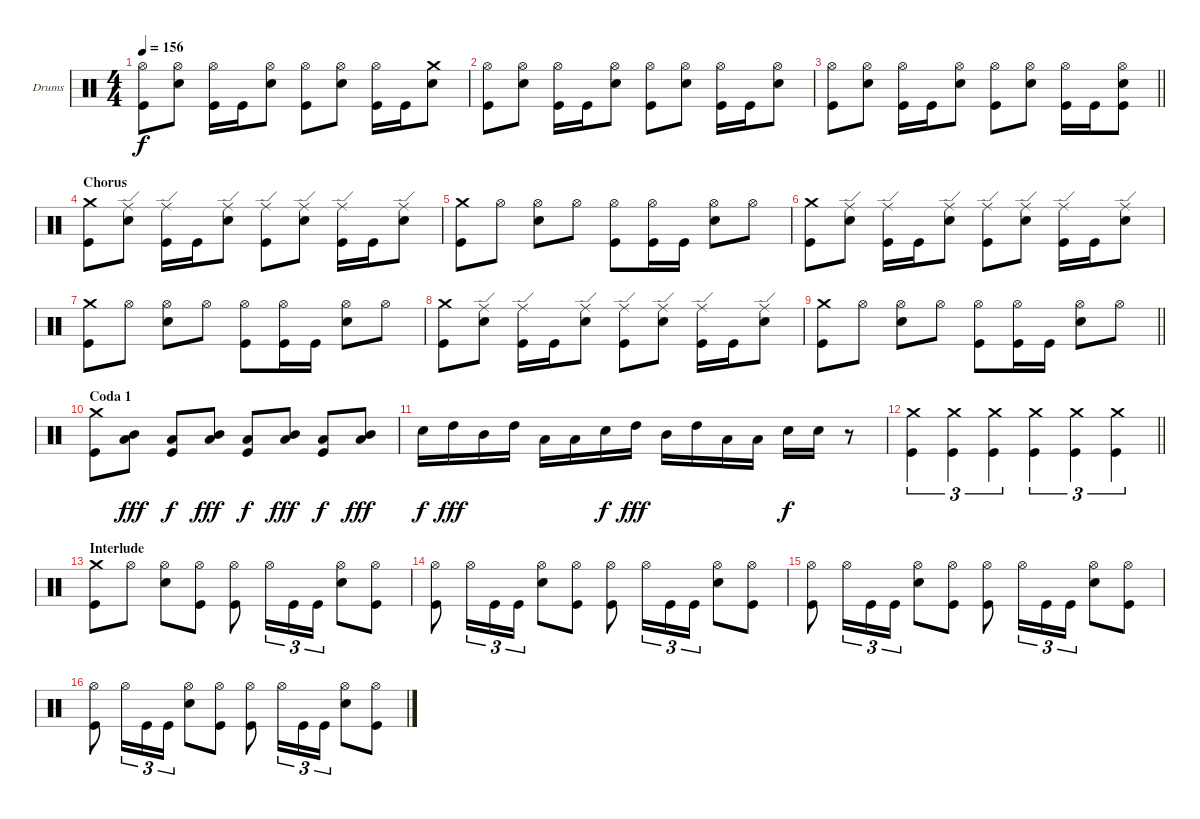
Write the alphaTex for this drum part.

\bracketExtendMode groupsimilarinstruments
\firstSystemTrackNameOrientation horizontal
\otherSystemsTrackNameOrientation horizontal
\track ("Drums" "Drums") {instrument percussion}
\staff {score}
\articulation defaults
\ts (4 4)
\tempo 156
\clef neutral
\ks c
("Hi-Hat (open)" "Kick (hit)").8{dy f} ("Hi-Hat (open)" "Snare (hit) 2").8 ("Hi-Hat (open)" "Kick (hit)").16 "Kick (hit)".16 ("Hi-Hat (open)" "Snare (hit) 2").8 ("Hi-Hat (open)" "Kick (hit)").8 ("Hi-Hat (open)" "Snare (hit) 2").8 ("Hi-Hat (open)" "Kick (hit)").16 "Kick (hit)".16 ("Crash medium (hit)" "Snare (hit) 2").8 |
("Hi-Hat (open)" "Kick (hit)").8 ("Hi-Hat (open)" "Snare (hit) 2").8 ("Hi-Hat (open)" "Kick (hit)").16 "Kick (hit)".16 ("Hi-Hat (open)" "Snare (hit) 2").8 ("Hi-Hat (open)" "Kick (hit)").8 ("Hi-Hat (open)" "Snare (hit) 2").8 ("Hi-Hat (open)" "Kick (hit)").16 "Kick (hit)".16 ("Hi-Hat (open)" "Snare (hit) 2").8 |
\barLineRight lightlight
("Hi-Hat (open)" "Kick (hit)").8 ("Hi-Hat (open)" "Snare (hit) 2").8 ("Hi-Hat (open)" "Kick (hit)").16 "Kick (hit)".16 ("Hi-Hat (open)" "Snare (hit) 2").8 ("Hi-Hat (open)" "Kick (hit)").8 ("Hi-Hat (open)" "Snare (hit) 2").8 ("Hi-Hat (open)" "Kick (hit)").16 "Kick (hit)".16 ("Hi-Hat (open)" "Snare (hit) 2" "Kick (hit)").8 |
\section ("" "Chorus")
("Crash medium (hit)" "Kick (hit)").8 ("Ride (edge)" "Snare (hit) 2").8 ("Ride (edge)" "Kick (hit)").16 "Kick (hit)".16 ("Ride (edge)" "Snare (hit) 2").8 ("Ride (edge)" "Kick (hit)").8 ("Ride (edge)" "Snare (hit) 2").8 ("Ride (edge)" "Kick (hit)").16 "Kick (hit)".16 ("Ride (edge)" "Snare (hit) 2").8 |
("Crash medium (hit)" "Kick (hit)").8 "Hi-Hat (open)".8 ("Hi-Hat (open)" "Snare (hit) 2").8 "Hi-Hat (open)".8 ("Hi-Hat (open)" "Kick (hit)").8 ("Hi-Hat (open)" "Kick (hit)").16 "Kick (hit)".16 ("Hi-Hat (open)" "Snare (hit) 2").8 "Hi-Hat (open)".8 |
("Crash medium (hit)" "Kick (hit)").8 ("Ride (edge)" "Snare (hit) 2").8 ("Ride (edge)" "Kick (hit)").16 "Kick (hit)".16 ("Ride (edge)" "Snare (hit) 2").8 ("Ride (edge)" "Kick (hit)").8 ("Ride (edge)" "Snare (hit) 2").8 ("Ride (edge)" "Kick (hit)").16 "Kick (hit)".16 ("Ride (edge)" "Snare (hit) 2").8 |
("Crash medium (hit)" "Kick (hit)").8 "Hi-Hat (open)".8 ("Hi-Hat (open)" "Snare (hit) 2").8 "Hi-Hat (open)".8 ("Hi-Hat (open)" "Kick (hit)").8 ("Hi-Hat (open)" "Kick (hit)").16 "Kick (hit)".16 ("Hi-Hat (open)" "Snare (hit) 2").8 "Hi-Hat (open)".8 |
("Crash medium (hit)" "Kick (hit)").8 ("Ride (edge)" "Snare (hit) 2").8 ("Ride (edge)" "Kick (hit)").16 "Kick (hit)".16 ("Ride (edge)" "Snare (hit) 2").8 ("Ride (edge)" "Kick (hit)").8 ("Ride (edge)" "Snare (hit) 2").8 ("Ride (edge)" "Kick (hit)").16 "Kick (hit)".16 ("Ride (edge)" "Snare (hit) 2").8 |
\barLineRight lightlight
("Crash medium (hit)" "Kick (hit)").8 "Hi-Hat (open)".8 ("Hi-Hat (open)" "Snare (hit) 2").8 "Hi-Hat (open)".8 ("Hi-Hat (open)" "Kick (hit)").8 ("Hi-Hat (open)" "Kick (hit)").16 "Kick (hit)".16 ("Hi-Hat (open)" "Snare (hit) 2").8 "Hi-Hat (open)".8 |
\section ("" "Coda 1")
("Crash medium (hit)" "Kick (hit)").8 ("Mid Tom (hit)" "Low Tom (hit)").8{dy fff} ("Low Tom (hit)" "Kick (hit)").8{dy f} ("Mid Tom (hit)" "Low Tom (hit)").8{dy fff} ("Low Tom (hit)" "Kick (hit)").8{dy f} ("Mid Tom (hit)" "Low Tom (hit)").8{dy fff} ("Low Tom (hit)" "Kick (hit)").8{dy f} ("Mid Tom (hit)" "Low Tom (hit)").8{dy fff} |
"Snare (hit) 2".16{dy f} "High Tom (hit)".16{dy fff} "Mid Tom (hit)".16 "High Tom (hit)".16 "Low Tom (hit)".16 "Low Tom (hit)".16 "Snare (hit) 2".16{dy f} "High Tom (hit)".16{dy fff} "Mid Tom (hit)".16 "High Tom (hit)".16 "Low Tom (hit)".16 "Low Tom (hit)".16 "Snare (hit) 2".16{dy f} "Snare (hit) 2".16 r.8 |
\barLineRight lightlight
("Crash medium (hit)" "Kick (hit)").4{tu (3 2)} ("Crash medium (hit)" "Kick (hit)").4{tu (3 2)} ("Crash medium (hit)" "Kick (hit)").4{tu (3 2)} ("Crash medium (hit)" "Kick (hit)").4{tu (3 2)} ("Crash medium (hit)" "Kick (hit)").4{tu (3 2)} ("Crash medium (hit)" "Kick (hit)").4{tu (3 2)} |
\section ("" "Interlude")
("Crash medium (hit)" "Kick (hit)").8 "Hi-Hat (open)".8 ("Hi-Hat (open)" "Snare (hit) 2").8 ("Hi-Hat (open)" "Kick (hit)").8 ("Hi-Hat (open)" "Kick (hit)").8 "Hi-Hat (open)".16{tu (3 2)} "Kick (hit)".16{tu (3 2)} "Kick (hit)".16{tu (3 2)} ("Hi-Hat (open)" "Snare (hit) 2").8 ("Hi-Hat (open)" "Kick (hit)").8 |
("Hi-Hat (open)" "Kick (hit)").8 "Hi-Hat (open)".16{tu (3 2)} "Kick (hit)".16{tu (3 2)} "Kick (hit)".16{tu (3 2)} ("Hi-Hat (open)" "Snare (hit) 2").8 ("Hi-Hat (open)" "Kick (hit)").8 ("Hi-Hat (open)" "Kick (hit)").8 "Hi-Hat (open)".16{tu (3 2)} "Kick (hit)".16{tu (3 2)} "Kick (hit)".16{tu (3 2)} ("Hi-Hat (open)" "Snare (hit) 2").8 ("Hi-Hat (open)" "Kick (hit)").8 |
("Hi-Hat (open)" "Kick (hit)").8 "Hi-Hat (open)".16{tu (3 2)} "Kick (hit)".16{tu (3 2)} "Kick (hit)".16{tu (3 2)} ("Hi-Hat (open)" "Snare (hit) 2").8 ("Hi-Hat (open)" "Kick (hit)").8 ("Hi-Hat (open)" "Kick (hit)").8 "Hi-Hat (open)".16{tu (3 2)} "Kick (hit)".16{tu (3 2)} "Kick (hit)".16{tu (3 2)} ("Hi-Hat (open)" "Snare (hit) 2").8 ("Hi-Hat (open)" "Kick (hit)").8 |
("Hi-Hat (open)" "Kick (hit)").8 "Hi-Hat (open)".16{tu (3 2)} "Kick (hit)".16{tu (3 2)} "Kick (hit)".16{tu (3 2)} ("Hi-Hat (open)" "Snare (hit) 2").8 ("Hi-Hat (open)" "Kick (hit)").8 ("Hi-Hat (open)" "Kick (hit)").8 "Hi-Hat (open)".16{tu (3 2)} "Kick (hit)".16{tu (3 2)} "Kick (hit)".16{tu (3 2)} ("Hi-Hat (open)" "Snare (hit) 2").8 ("Hi-Hat (open)" "Kick (hit)").8
